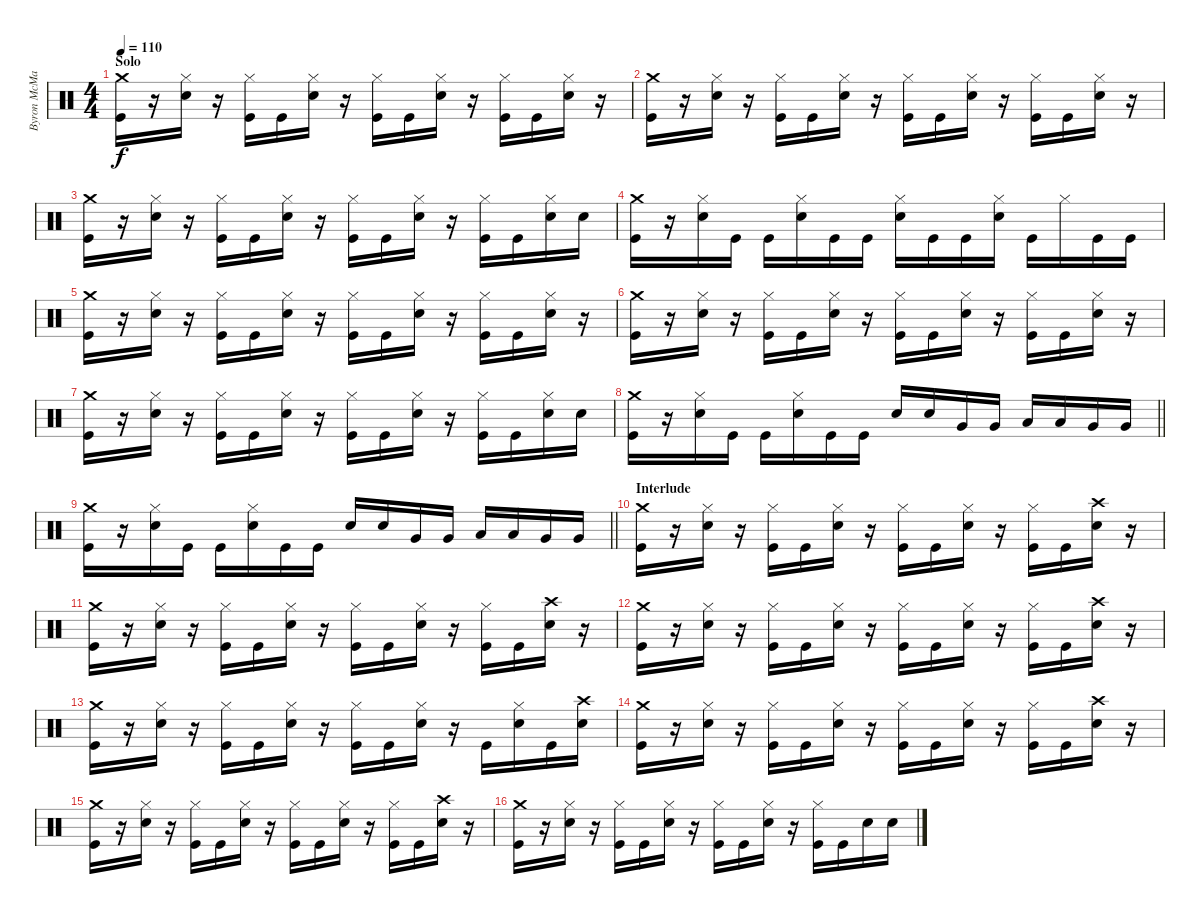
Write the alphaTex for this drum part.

\track ("Byron McMackin" "Byron McMa") {instrument percussion}
\staff {score}
\articulation defaults
\ts (4 4)
\section ("" "Solo")
\tempo 110
\clef neutral
\ks c
("Crash medium (hit)" "Kick (hit)").16{dy f} r.16 ("Hi-Hat (closed)" "Electric Snare (hit)").16 r.16 ("Hi-Hat (closed)" "Kick (hit)").16 "Kick (hit)".16 ("Hi-Hat (closed)" "Electric Snare (hit)").16 r.16 ("Hi-Hat (closed)" "Kick (hit)").16 "Kick (hit)".16 ("Hi-Hat (closed)" "Electric Snare (hit)").16 r.16 ("Hi-Hat (closed)" "Kick (hit)").16 "Kick (hit)".16 ("Hi-Hat (closed)" "Electric Snare (hit)").16 r.16 |
("Crash medium (hit)" "Kick (hit)").16 r.16 ("Hi-Hat (closed)" "Electric Snare (hit)").16 r.16 ("Hi-Hat (closed)" "Kick (hit)").16 "Kick (hit)".16 ("Hi-Hat (closed)" "Electric Snare (hit)").16 r.16 ("Hi-Hat (closed)" "Kick (hit)").16 "Kick (hit)".16 ("Hi-Hat (closed)" "Electric Snare (hit)").16 r.16 ("Hi-Hat (closed)" "Kick (hit)").16 "Kick (hit)".16 ("Hi-Hat (closed)" "Electric Snare (hit)").16 r.16 |
("Crash medium (hit)" "Kick (hit)").16 r.16 ("Hi-Hat (closed)" "Electric Snare (hit)").16 r.16 ("Hi-Hat (closed)" "Kick (hit)").16 "Kick (hit)".16 ("Hi-Hat (closed)" "Electric Snare (hit)").16 r.16 ("Hi-Hat (closed)" "Kick (hit)").16 "Kick (hit)".16 ("Hi-Hat (closed)" "Electric Snare (hit)").16 r.16 ("Hi-Hat (closed)" "Kick (hit)").16 "Kick (hit)".16 ("Hi-Hat (closed)" "Electric Snare (hit)").16 "Electric Snare (hit)".16 |
("Crash medium (hit)" "Kick (hit)").16 r.16 ("Hi-Hat (closed)" "Electric Snare (hit)").16 "Kick (hit)".16 "Kick (hit)".16 ("Hi-Hat (closed)" "Electric Snare (hit)").16 "Kick (hit)".16 "Kick (hit)".16 ("Hi-Hat (closed)" "Electric Snare (hit)").16 "Kick (hit)".16 "Kick (hit)".16 ("Hi-Hat (closed)" "Electric Snare (hit)").16 "Kick (hit)".16 "Hi-Hat (closed)".16 "Kick (hit)".16 "Kick (hit)".16 |
("Crash medium (hit)" "Kick (hit)").16 r.16 ("Hi-Hat (closed)" "Electric Snare (hit)").16 r.16 ("Hi-Hat (closed)" "Kick (hit)").16 "Kick (hit)".16 ("Hi-Hat (closed)" "Electric Snare (hit)").16 r.16 ("Hi-Hat (closed)" "Kick (hit)").16 "Kick (hit)".16 ("Hi-Hat (closed)" "Electric Snare (hit)").16 r.16 ("Hi-Hat (closed)" "Kick (hit)").16 "Kick (hit)".16 ("Hi-Hat (closed)" "Electric Snare (hit)").16 r.16 |
("Crash medium (hit)" "Kick (hit)").16 r.16 ("Hi-Hat (closed)" "Electric Snare (hit)").16 r.16 ("Hi-Hat (closed)" "Kick (hit)").16 "Kick (hit)".16 ("Hi-Hat (closed)" "Electric Snare (hit)").16 r.16 ("Hi-Hat (closed)" "Kick (hit)").16 "Kick (hit)".16 ("Hi-Hat (closed)" "Electric Snare (hit)").16 r.16 ("Hi-Hat (closed)" "Kick (hit)").16 "Kick (hit)".16 ("Hi-Hat (closed)" "Electric Snare (hit)").16 r.16 |
("Crash medium (hit)" "Kick (hit)").16 r.16 ("Hi-Hat (closed)" "Electric Snare (hit)").16 r.16 ("Hi-Hat (closed)" "Kick (hit)").16 "Kick (hit)".16 ("Hi-Hat (closed)" "Electric Snare (hit)").16 r.16 ("Hi-Hat (closed)" "Kick (hit)").16 "Kick (hit)".16 ("Hi-Hat (closed)" "Electric Snare (hit)").16 r.16 ("Hi-Hat (closed)" "Kick (hit)").16 "Kick (hit)".16 ("Hi-Hat (closed)" "Electric Snare (hit)").16 "Electric Snare (hit)".16 |
\barLineRight lightlight
("Crash medium (hit)" "Kick (hit)").16 r.16 ("Hi-Hat (closed)" "Electric Snare (hit)").16 "Kick (hit)".16 "Kick (hit)".16 ("Hi-Hat (closed)" "Electric Snare (hit)").16 "Kick (hit)".16 "Kick (hit)".16 "Electric Snare (hit)".16 "Electric Snare (hit)".16 "Very Low Tom (hit)".16 "Very Low Tom (hit)".16 "Low Tom (hit)".16 "Low Tom (hit)".16 "Very Low Tom (hit)".16 "Very Low Tom (hit)".16 |
\barLineRight lightlight
("Crash medium (hit)" "Kick (hit)").16 r.16 ("Hi-Hat (closed)" "Electric Snare (hit)").16 "Kick (hit)".16 "Kick (hit)".16 ("Hi-Hat (closed)" "Electric Snare (hit)").16 "Kick (hit)".16 "Kick (hit)".16 "Electric Snare (hit)".16 "Electric Snare (hit)".16 "Very Low Tom (hit)".16 "Very Low Tom (hit)".16 "Low Tom (hit)".16 "Low Tom (hit)".16 "Very Low Tom (hit)".16 "Very Low Tom (hit)".16 |
\section ("" "Interlude")
("Crash medium (hit)" "Kick (hit)").16 r.16 ("Hi-Hat (closed)" "Electric Snare (hit)").16 r.16 ("Hi-Hat (closed)" "Kick (hit)").16 "Kick (hit)".16 ("Hi-Hat (closed)" "Electric Snare (hit)").16 r.16 ("Hi-Hat (closed)" "Kick (hit)").16 "Kick (hit)".16 ("Hi-Hat (closed)" "Electric Snare (hit)").16 r.16 ("Hi-Hat (closed)" "Kick (hit)").16 "Kick (hit)".16 ("Crash high (hit)" "Electric Snare (hit)").16 r.16 |
("Crash medium (hit)" "Kick (hit)").16 r.16 ("Hi-Hat (closed)" "Electric Snare (hit)").16 r.16 ("Hi-Hat (closed)" "Kick (hit)").16 "Kick (hit)".16 ("Hi-Hat (closed)" "Electric Snare (hit)").16 r.16 ("Hi-Hat (closed)" "Kick (hit)").16 "Kick (hit)".16 ("Hi-Hat (closed)" "Electric Snare (hit)").16 r.16 ("Hi-Hat (closed)" "Kick (hit)").16 "Kick (hit)".16 ("Crash high (hit)" "Electric Snare (hit)").16 r.16 |
("Crash medium (hit)" "Kick (hit)").16 r.16 ("Hi-Hat (closed)" "Electric Snare (hit)").16 r.16 ("Hi-Hat (closed)" "Kick (hit)").16 "Kick (hit)".16 ("Hi-Hat (closed)" "Electric Snare (hit)").16 r.16 ("Hi-Hat (closed)" "Kick (hit)").16 "Kick (hit)".16 ("Hi-Hat (closed)" "Electric Snare (hit)").16 r.16 ("Hi-Hat (closed)" "Kick (hit)").16 "Kick (hit)".16 ("Crash high (hit)" "Electric Snare (hit)").16 r.16 |
("Crash medium (hit)" "Kick (hit)").16 r.16 ("Hi-Hat (closed)" "Electric Snare (hit)").16 r.16 ("Hi-Hat (closed)" "Kick (hit)").16 "Kick (hit)".16 ("Hi-Hat (closed)" "Electric Snare (hit)").16 r.16 ("Hi-Hat (closed)" "Kick (hit)").16 "Kick (hit)".16 ("Hi-Hat (closed)" "Electric Snare (hit)").16 r.16 "Kick (hit)".16 ("Hi-Hat (closed)" "Electric Snare (hit)").16 "Kick (hit)".16 ("Crash high (hit)" "Electric Snare (hit)").16 |
("Crash medium (hit)" "Kick (hit)").16 r.16 ("Hi-Hat (closed)" "Electric Snare (hit)").16 r.16 ("Hi-Hat (closed)" "Kick (hit)").16 "Kick (hit)".16 ("Hi-Hat (closed)" "Electric Snare (hit)").16 r.16 ("Hi-Hat (closed)" "Kick (hit)").16 "Kick (hit)".16 ("Hi-Hat (closed)" "Electric Snare (hit)").16 r.16 ("Hi-Hat (closed)" "Kick (hit)").16 "Kick (hit)".16 ("Crash high (hit)" "Electric Snare (hit)").16 r.16 |
("Crash medium (hit)" "Kick (hit)").16 r.16 ("Hi-Hat (closed)" "Electric Snare (hit)").16 r.16 ("Hi-Hat (closed)" "Kick (hit)").16 "Kick (hit)".16 ("Hi-Hat (closed)" "Electric Snare (hit)").16 r.16 ("Hi-Hat (closed)" "Kick (hit)").16 "Kick (hit)".16 ("Hi-Hat (closed)" "Electric Snare (hit)").16 r.16 ("Hi-Hat (closed)" "Kick (hit)").16 "Kick (hit)".16 ("Crash high (hit)" "Electric Snare (hit)").16 r.16 |
("Crash medium (hit)" "Kick (hit)").16 r.16 ("Hi-Hat (closed)" "Electric Snare (hit)").16 r.16 ("Hi-Hat (closed)" "Kick (hit)").16 "Kick (hit)".16 ("Hi-Hat (closed)" "Electric Snare (hit)").16 r.16 ("Hi-Hat (closed)" "Kick (hit)").16 "Kick (hit)".16 ("Hi-Hat (closed)" "Electric Snare (hit)").16 r.16 ("Hi-Hat (closed)" "Kick (hit)").16 "Kick (hit)".16 "Electric Snare (hit)".16 "Electric Snare (hit)".16
